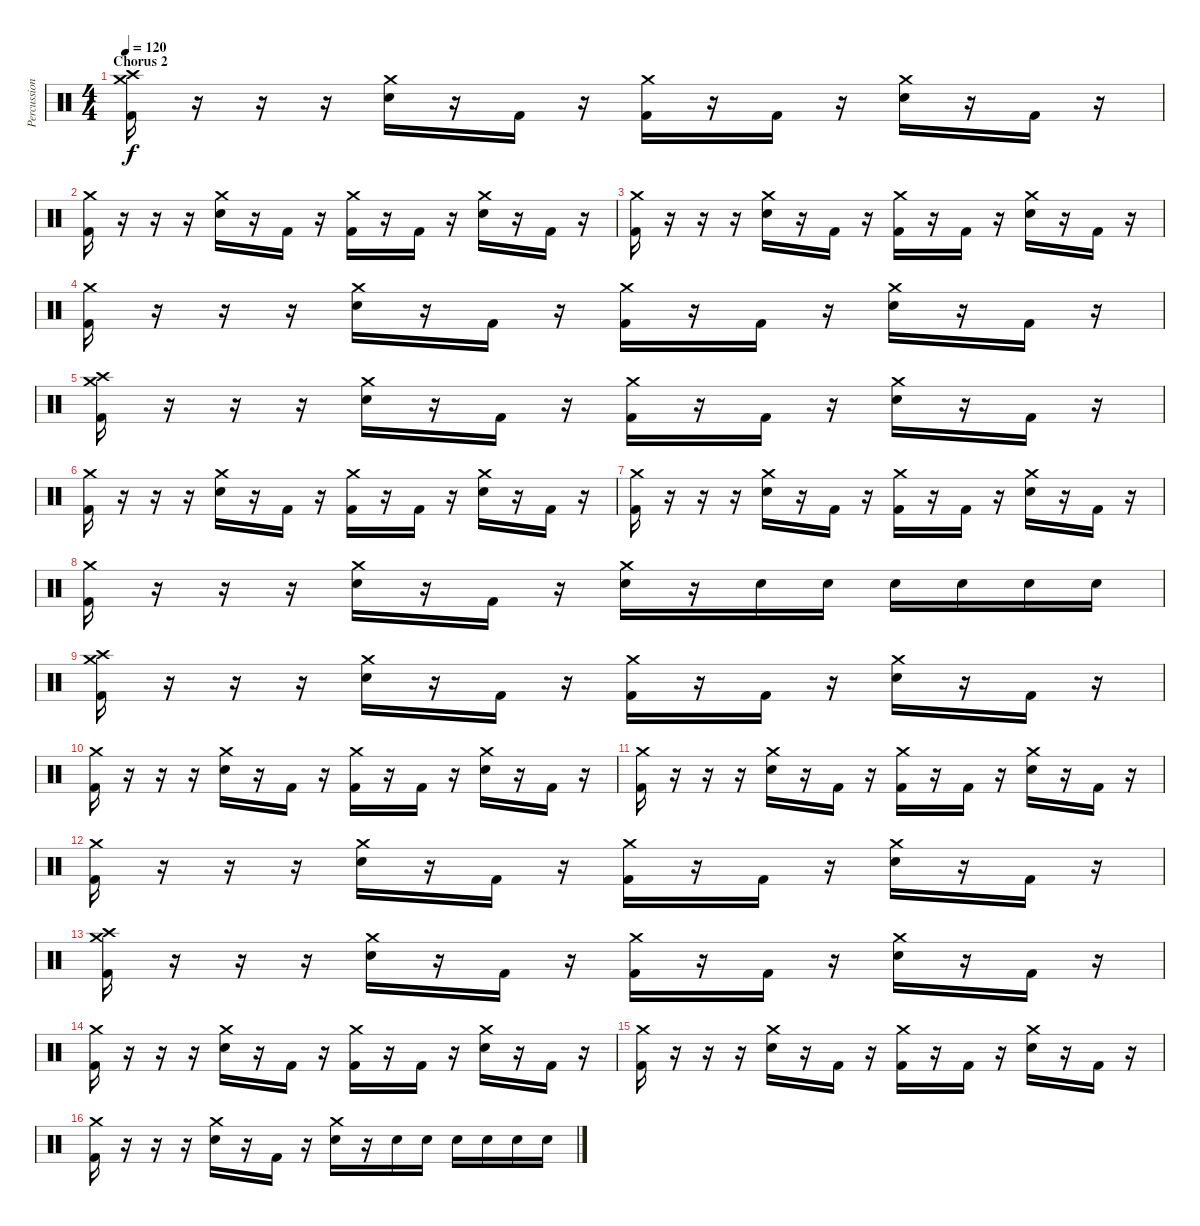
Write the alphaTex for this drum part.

\track ("Percussion" "Percussion") {instrument percussion}
\staff {score}
\articulation defaults
\ts (4 4)
\section ("" "Chorus 2")
\tempo 120
\clef neutral
\ks c
("Kick (hit) 2" "Crash medium (hit)" "Crash high (hit)").16{dy f} r.16 r.16 r.16 ("Snare (hit) 2" "Crash medium (hit)").16 r.16 "Kick (hit) 2".16 r.16 ("Kick (hit) 2" "Crash medium (hit)").16 r.16 "Kick (hit) 2".16 r.16 ("Snare (hit) 2" "Crash medium (hit)").16 r.16 "Kick (hit) 2".16 r.16 |
("Kick (hit) 2" "Crash medium (hit)").16 r.16 r.16 r.16 ("Snare (hit) 2" "Crash medium (hit)").16 r.16 "Kick (hit) 2".16 r.16 ("Kick (hit) 2" "Crash medium (hit)").16 r.16 "Kick (hit) 2".16 r.16 ("Snare (hit) 2" "Crash medium (hit)").16 r.16 "Kick (hit) 2".16 r.16 |
("Kick (hit) 2" "Crash medium (hit)").16 r.16 r.16 r.16 ("Snare (hit) 2" "Crash medium (hit)").16 r.16 "Kick (hit) 2".16 r.16 ("Kick (hit) 2" "Crash medium (hit)").16 r.16 "Kick (hit) 2".16 r.16 ("Snare (hit) 2" "Crash medium (hit)").16 r.16 "Kick (hit) 2".16 r.16 |
("Kick (hit) 2" "Crash medium (hit)").16 r.16 r.16 r.16 ("Snare (hit) 2" "Crash medium (hit)").16 r.16 "Kick (hit) 2".16 r.16 ("Kick (hit) 2" "Crash medium (hit)").16 r.16 "Kick (hit) 2".16 r.16 ("Snare (hit) 2" "Crash medium (hit)").16 r.16 "Kick (hit) 2".16 r.16 |
("Kick (hit) 2" "Crash medium (hit)" "Crash high (hit)").16 r.16 r.16 r.16 ("Snare (hit) 2" "Crash medium (hit)").16 r.16 "Kick (hit) 2".16 r.16 ("Kick (hit) 2" "Crash medium (hit)").16 r.16 "Kick (hit) 2".16 r.16 ("Snare (hit) 2" "Crash medium (hit)").16 r.16 "Kick (hit) 2".16 r.16 |
("Kick (hit) 2" "Crash medium (hit)").16 r.16 r.16 r.16 ("Snare (hit) 2" "Crash medium (hit)").16 r.16 "Kick (hit) 2".16 r.16 ("Kick (hit) 2" "Crash medium (hit)").16 r.16 "Kick (hit) 2".16 r.16 ("Snare (hit) 2" "Crash medium (hit)").16 r.16 "Kick (hit) 2".16 r.16 |
("Kick (hit) 2" "Crash medium (hit)").16 r.16 r.16 r.16 ("Snare (hit) 2" "Crash medium (hit)").16 r.16 "Kick (hit) 2".16 r.16 ("Kick (hit) 2" "Crash medium (hit)").16 r.16 "Kick (hit) 2".16 r.16 ("Snare (hit) 2" "Crash medium (hit)").16 r.16 "Kick (hit) 2".16 r.16 |
("Kick (hit) 2" "Crash medium (hit)").16 r.16 r.16 r.16 ("Snare (hit) 2" "Crash medium (hit)").16 r.16 "Kick (hit) 2".16 r.16 ("Snare (hit) 2" "Crash medium (hit)").16 r.16 "Snare (hit) 2".16 "Snare (hit) 2".16 "Snare (hit) 2".16 "Snare (hit) 2".16 "Snare (hit) 2".16 "Snare (hit) 2".16 |
("Kick (hit) 2" "Crash medium (hit)" "Crash high (hit)").16 r.16 r.16 r.16 ("Snare (hit) 2" "Crash medium (hit)").16 r.16 "Kick (hit) 2".16 r.16 ("Kick (hit) 2" "Crash medium (hit)").16 r.16 "Kick (hit) 2".16 r.16 ("Snare (hit) 2" "Crash medium (hit)").16 r.16 "Kick (hit) 2".16 r.16 |
("Kick (hit) 2" "Crash medium (hit)").16 r.16 r.16 r.16 ("Snare (hit) 2" "Crash medium (hit)").16 r.16 "Kick (hit) 2".16 r.16 ("Kick (hit) 2" "Crash medium (hit)").16 r.16 "Kick (hit) 2".16 r.16 ("Snare (hit) 2" "Crash medium (hit)").16 r.16 "Kick (hit) 2".16 r.16 |
("Kick (hit) 2" "Crash medium (hit)").16 r.16 r.16 r.16 ("Snare (hit) 2" "Crash medium (hit)").16 r.16 "Kick (hit) 2".16 r.16 ("Kick (hit) 2" "Crash medium (hit)").16 r.16 "Kick (hit) 2".16 r.16 ("Snare (hit) 2" "Crash medium (hit)").16 r.16 "Kick (hit) 2".16 r.16 |
("Kick (hit) 2" "Crash medium (hit)").16 r.16 r.16 r.16 ("Snare (hit) 2" "Crash medium (hit)").16 r.16 "Kick (hit) 2".16 r.16 ("Kick (hit) 2" "Crash medium (hit)").16 r.16 "Kick (hit) 2".16 r.16 ("Snare (hit) 2" "Crash medium (hit)").16 r.16 "Kick (hit) 2".16 r.16 |
("Kick (hit) 2" "Crash medium (hit)" "Crash high (hit)").16 r.16 r.16 r.16 ("Snare (hit) 2" "Crash medium (hit)").16 r.16 "Kick (hit) 2".16 r.16 ("Kick (hit) 2" "Crash medium (hit)").16 r.16 "Kick (hit) 2".16 r.16 ("Snare (hit) 2" "Crash medium (hit)").16 r.16 "Kick (hit) 2".16 r.16 |
("Kick (hit) 2" "Crash medium (hit)").16 r.16 r.16 r.16 ("Snare (hit) 2" "Crash medium (hit)").16 r.16 "Kick (hit) 2".16 r.16 ("Kick (hit) 2" "Crash medium (hit)").16 r.16 "Kick (hit) 2".16 r.16 ("Snare (hit) 2" "Crash medium (hit)").16 r.16 "Kick (hit) 2".16 r.16 |
("Kick (hit) 2" "Crash medium (hit)").16 r.16 r.16 r.16 ("Snare (hit) 2" "Crash medium (hit)").16 r.16 "Kick (hit) 2".16 r.16 ("Kick (hit) 2" "Crash medium (hit)").16 r.16 "Kick (hit) 2".16 r.16 ("Snare (hit) 2" "Crash medium (hit)").16 r.16 "Kick (hit) 2".16 r.16 |
("Kick (hit) 2" "Crash medium (hit)").16 r.16 r.16 r.16 ("Snare (hit) 2" "Crash medium (hit)").16 r.16 "Kick (hit) 2".16 r.16 ("Snare (hit) 2" "Crash medium (hit)").16 r.16 "Snare (hit) 2".16 "Snare (hit) 2".16 "Snare (hit) 2".16 "Snare (hit) 2".16 "Snare (hit) 2".16 "Snare (hit) 2".16
